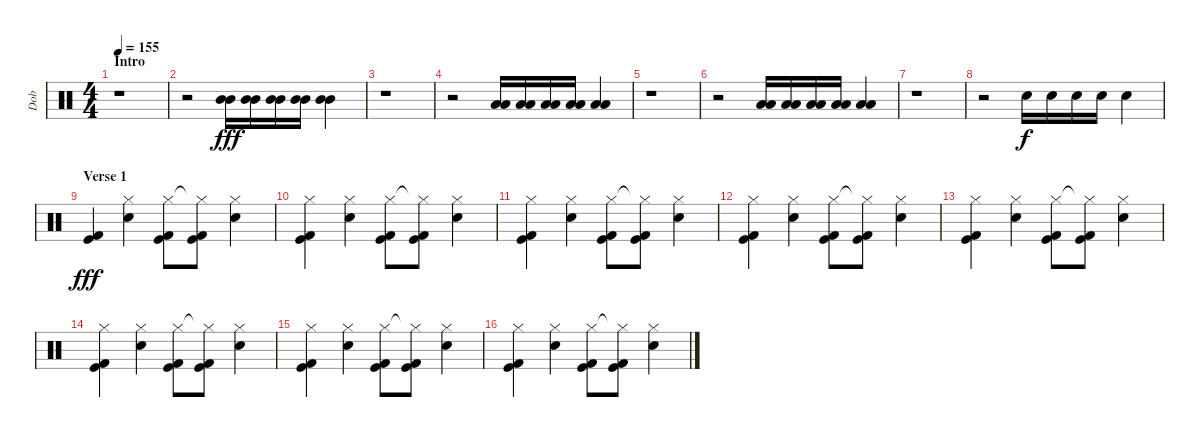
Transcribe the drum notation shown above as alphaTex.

\track ("Dob" "Dob") {instrument percussion}
\staff {score}
\articulation defaults
\ts (4 4)
\section ("" "Intro")
\tempo 155
\clef neutral
\ks c
r.1{dy fff} |
r.2 ("Mid Tom (hit)" "Mid Tom (hit)").16 ("Mid Tom (hit)" "Mid Tom (hit)").16 ("Mid Tom (hit)" "Mid Tom (hit)").16 ("Mid Tom (hit)" "Mid Tom (hit)").16 ("Mid Tom (hit)" "Mid Tom (hit)").4 |
r.1 |
r.2 ("Low Floor Tom (hit)" "Low Floor Tom (hit)").16 ("Low Floor Tom (hit)" "Low Floor Tom (hit)").16 ("Low Floor Tom (hit)" "Low Floor Tom (hit)").16 ("Low Floor Tom (hit)" "Low Floor Tom (hit)").16 ("Low Floor Tom (hit)" "Low Floor Tom (hit)").4 |
r.1 |
r.2 ("Low Tom (hit)" "Low Tom (hit)").16 ("Low Tom (hit)" "Low Tom (hit)").16 ("Low Tom (hit)" "Low Tom (hit)").16 ("Low Tom (hit)" "Low Tom (hit)").16 ("Low Tom (hit)" "Low Tom (hit)").4 |
r.1 |
r.2 "Electric Snare (hit)".16{dy f} "Electric Snare (hit)".16 "Electric Snare (hit)".16 "Electric Snare (hit)".16 "Electric Snare (hit)".4 |
\section ("" "Verse 1")
("Kick (hit) 2" "Kick (hit)").4{dy fff} ("Hi-Hat (closed)" "Electric Snare (hit)").4 ("Hi-Hat (closed)" "Kick (hit) 2" "Kick (hit)").8 ("Hi-Hat (closed)"{t} "Kick (hit) 2" "Kick (hit)").8 ("Hi-Hat (closed)" "Electric Snare (hit)").4 |
("Hi-Hat (closed)" "Kick (hit) 2" "Kick (hit)").4 ("Hi-Hat (closed)" "Electric Snare (hit)").4 ("Hi-Hat (closed)" "Kick (hit) 2" "Kick (hit)").8 ("Hi-Hat (closed)"{t} "Kick (hit) 2" "Kick (hit)").8 ("Hi-Hat (closed)" "Electric Snare (hit)").4 |
("Hi-Hat (closed)" "Kick (hit) 2" "Kick (hit)").4 ("Hi-Hat (closed)" "Electric Snare (hit)").4 ("Hi-Hat (closed)" "Kick (hit) 2" "Kick (hit)").8 ("Hi-Hat (closed)"{t} "Kick (hit) 2" "Kick (hit)").8 ("Hi-Hat (closed)" "Electric Snare (hit)").4 |
("Hi-Hat (closed)" "Kick (hit) 2" "Kick (hit)").4 ("Hi-Hat (closed)" "Electric Snare (hit)").4 ("Hi-Hat (closed)" "Kick (hit) 2" "Kick (hit)").8 ("Hi-Hat (closed)"{t} "Kick (hit) 2" "Kick (hit)").8 ("Hi-Hat (closed)" "Electric Snare (hit)").4 |
("Hi-Hat (closed)" "Kick (hit) 2" "Kick (hit)").4 ("Hi-Hat (closed)" "Electric Snare (hit)").4 ("Hi-Hat (closed)" "Kick (hit) 2" "Kick (hit)").8 ("Hi-Hat (closed)"{t} "Kick (hit) 2" "Kick (hit)").8 ("Hi-Hat (closed)" "Electric Snare (hit)").4 |
("Hi-Hat (closed)" "Kick (hit) 2" "Kick (hit)").4 ("Hi-Hat (closed)" "Electric Snare (hit)").4 ("Hi-Hat (closed)" "Kick (hit) 2" "Kick (hit)").8 ("Hi-Hat (closed)"{t} "Kick (hit) 2" "Kick (hit)").8 ("Hi-Hat (closed)" "Electric Snare (hit)").4 |
("Hi-Hat (closed)" "Kick (hit) 2" "Kick (hit)").4 ("Hi-Hat (closed)" "Electric Snare (hit)").4 ("Hi-Hat (closed)" "Kick (hit) 2" "Kick (hit)").8 ("Hi-Hat (closed)"{t} "Kick (hit) 2" "Kick (hit)").8 ("Hi-Hat (closed)" "Electric Snare (hit)").4 |
("Hi-Hat (closed)" "Kick (hit) 2" "Kick (hit)").4 ("Hi-Hat (closed)" "Electric Snare (hit)").4 ("Hi-Hat (closed)" "Kick (hit) 2" "Kick (hit)").8 ("Hi-Hat (closed)"{t} "Kick (hit) 2" "Kick (hit)").8 ("Hi-Hat (closed)" "Electric Snare (hit)").4
